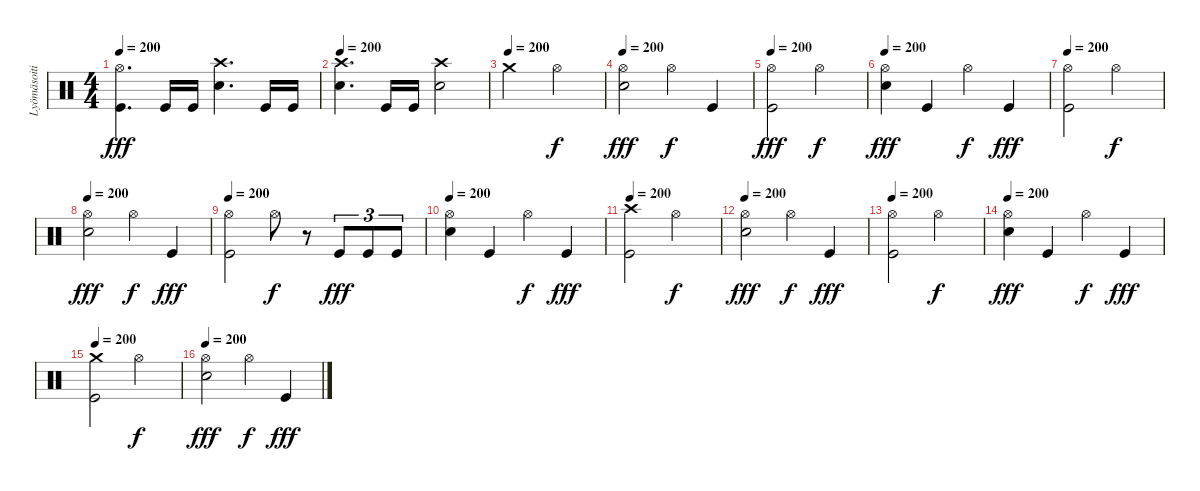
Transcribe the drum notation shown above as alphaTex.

\track ("Lyömäsoitin" "Lyömäsoiti") {instrument percussion}
\staff {score}
\articulation defaults
\ts (4 4)
\tempo 200
\clef neutral
\ks c
("Hi-Hat (open)" "Kick (hit)").4{d dy fff} "Kick (hit)".16 "Kick (hit)".16 ("Crash high (hit)" "Electric Snare (hit)").4{d} "Kick (hit)".16 "Kick (hit)".16 |
\tempo 200
("Crash high (hit)" "Electric Snare (hit)").4{d} "Kick (hit)".16 "Kick (hit)".16 ("Crash high (hit)" "Electric Snare (hit)").2 |
\tempo (200)
"Crash medium (hit)".2 "Hi-Hat (open)".2{dy f} |
\tempo 200
("Hi-Hat (open)" "Electric Snare (hit)").2{dy fff} "Hi-Hat (open)".4{dy f} "Kick (hit)".4 |
\tempo 200
("Hi-Hat (open)" "Kick (hit)").2{dy fff} "Hi-Hat (open)".2{dy f} |
\tempo 200
("Hi-Hat (open)" "Electric Snare (hit)").4{dy fff} "Kick (hit)".4 "Hi-Hat (open)".4{dy f} "Kick (hit)".4{dy fff} |
\tempo 200
("Hi-Hat (open)" "Kick (hit)").2 "Hi-Hat (open)".2{dy f} |
\tempo 200
("Hi-Hat (open)" "Electric Snare (hit)").2{dy fff} "Hi-Hat (open)".4{dy f} "Kick (hit)".4{dy fff} |
\tempo 200
("Hi-Hat (open)" "Kick (hit)").2 "Hi-Hat (open)".8{dy f} r.8 "Kick (hit)".8{tu (3 2) dy fff} "Kick (hit)".8{tu (3 2)} "Kick (hit)".8{tu (3 2)} |
\tempo 200
("Hi-Hat (open)" "Electric Snare (hit)").4 "Kick (hit)".4 "Hi-Hat (open)".4{dy f} "Kick (hit)".4{dy fff} |
\tempo 200
("Crash high (hit)" "Kick (hit)").2 "Hi-Hat (open)".2{dy f} |
\tempo 200
("Hi-Hat (open)" "Electric Snare (hit)").2{dy fff} "Hi-Hat (open)".4{dy f} "Kick (hit)".4{dy fff} |
\tempo 200
("Hi-Hat (open)" "Kick (hit)").2 "Hi-Hat (open)".2{dy f} |
\tempo 200
("Hi-Hat (open)" "Electric Snare (hit)").4{dy fff} "Kick (hit)".4 "Hi-Hat (open)".4{dy f} "Kick (hit)".4{dy fff} |
\tempo 200
("Crash medium (hit)" "Kick (hit)").2 "Hi-Hat (open)".2{dy f} |
\tempo 200
("Hi-Hat (open)" "Electric Snare (hit)").2{dy fff} "Hi-Hat (open)".4{dy f} "Kick (hit)".4{dy fff}
